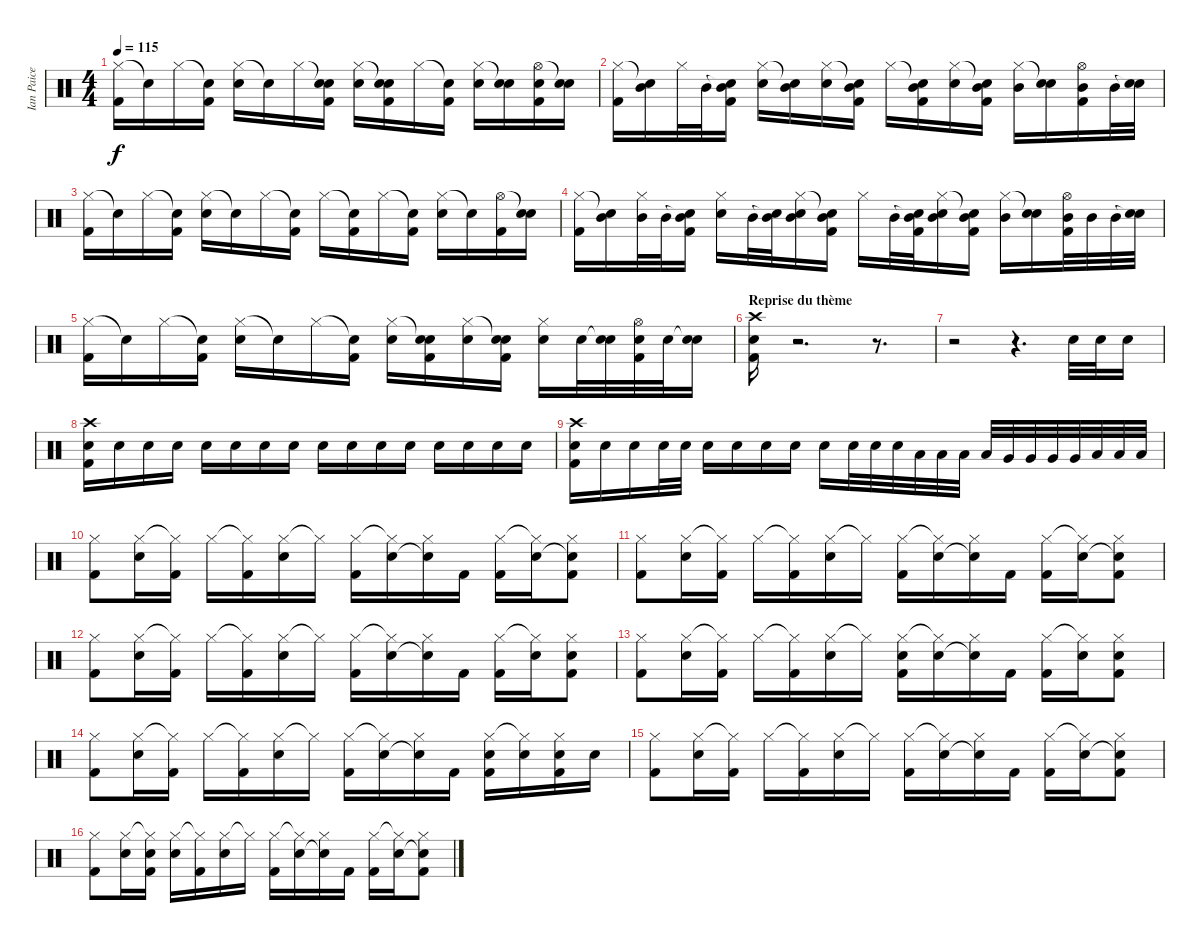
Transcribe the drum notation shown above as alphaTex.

\track ("Ian Paice" "Ian Paice") {instrument percussion}
\staff {score}
\articulation defaults
\ts (4 4)
\tempo 115
\clef neutral
\ks c
("Hi-Hat (closed)" "Kick (hit) 2").16{dy f} "Snare (hit)"{t}.16 "Hi-Hat (closed)".16 ("Snare (hit)"{t} "Kick (hit) 2").16 ("Hi-Hat (closed)" "Snare (hit) 2").16 "Snare (hit)"{t}.16 "Hi-Hat (closed)".16 ("Snare (hit)"{t} "Snare (hit) 2" "Kick (hit) 2").16 ("Hi-Hat (closed)" "Snare (hit) 2").16 ("Snare (hit)"{t} "Snare (hit) 2" "Kick (hit) 2").16 "Hi-Hat (closed)".16 ("Snare (hit)"{t} "Kick (hit) 2").16 ("Hi-Hat (closed)" "Snare (hit) 2").16 ("Snare (hit)"{t} "Snare (hit) 2").16 ("Hi-Hat (open)" "Snare (hit) 2" "Kick (hit) 2").16 ("Snare (hit)"{t} "Snare (hit) 2").16 |
("Hi-Hat (closed)" "Kick (hit) 2").16 ("Snare (hit)"{t} "Mid Tom (hit)").16 "Hi-Hat (closed)".32 "Mid Tom (hit)".32 ("Snare (hit)"{t} "Mid Tom (hit)" "Kick (hit) 2").16 ("Hi-Hat (closed)" "Snare (hit) 2").16 ("Snare (hit)"{t} "Mid Tom (hit)").16 ("Hi-Hat (closed)" "Snare (hit) 2").16 ("Snare (hit)"{t} "Mid Tom (hit)" "Kick (hit) 2").16 "Hi-Hat (closed)".16 ("Snare (hit)"{t} "Mid Tom (hit)" "Kick (hit) 2").16 ("Hi-Hat (closed)" "Snare (hit) 2").16 ("Snare (hit)"{t} "Mid Tom (hit)" "Kick (hit) 2").16 ("Hi-Hat (closed)" "Mid Tom (hit)").16 ("Snare (hit)"{t} "Snare (hit) 2").16 ("Hi-Hat (open)" "Mid Tom (hit)" "Kick (hit) 2").16 "Mid Tom (hit)".32 ("Snare (hit)"{t} "Snare (hit) 2").32 |
("Hi-Hat (closed)" "Kick (hit) 2").16 "Snare (hit)"{t}.16 "Hi-Hat (closed)".16 ("Snare (hit)"{t} "Kick (hit) 2").16 ("Hi-Hat (closed)" "Snare (hit) 2").16 "Snare (hit)"{t}.16 "Hi-Hat (closed)".16 ("Snare (hit)"{t} "Kick (hit) 2").16 "Hi-Hat (closed)".16 ("Snare (hit)"{t} "Kick (hit) 2").16 "Hi-Hat (closed)".16 ("Snare (hit)"{t} "Kick (hit) 2").16 ("Hi-Hat (closed)" "Snare (hit) 2").16 "Snare (hit)"{t}.16 ("Hi-Hat (open)" "Kick (hit) 2").16 ("Snare (hit)"{t} "Snare (hit) 2").16 |
("Hi-Hat (closed)" "Kick (hit) 2").16 ("Snare (hit)"{t} "Mid Tom (hit)").16 ("Hi-Hat (closed)" "Mid Tom (hit)").32 "Mid Tom (hit)".32 ("Snare (hit)"{t} "Mid Tom (hit)" "Kick (hit) 2").16 ("Hi-Hat (closed)" "Snare (hit) 2").16 "Mid Tom (hit)".32 ("Snare (hit)"{t} "Mid Tom (hit)").32 ("Hi-Hat (closed)" "Mid Tom (hit)" "Snare (hit) 2").16 ("Snare (hit)"{t} "Mid Tom (hit)" "Kick (hit) 2").16 "Hi-Hat (closed)".16 "Mid Tom (hit)".32 ("Snare (hit)"{t} "Mid Tom (hit)" "Kick (hit) 2").32 ("Hi-Hat (closed)" "Mid Tom (hit)" "Snare (hit) 2").16 ("Snare (hit)"{t} "Mid Tom (hit)" "Kick (hit) 2").16 ("Hi-Hat (closed)" "Mid Tom (hit)").16 ("Snare (hit)"{t} "Snare (hit) 2").16 ("Hi-Hat (open)" "Mid Tom (hit)" "Kick (hit) 2").32 "Mid Tom (hit)".32 "Mid Tom (hit)".32 ("Snare (hit)"{t} "Snare (hit) 2").32 |
("Hi-Hat (closed)" "Kick (hit) 2").16 "Snare (hit)"{t}.16 "Hi-Hat (closed)".16 ("Snare (hit)"{t} "Kick (hit) 2").16 ("Hi-Hat (closed)" "Snare (hit) 2").16 "Snare (hit)"{t}.16 "Hi-Hat (closed)".16 ("Snare (hit)"{t} "Kick (hit) 2").16 ("Hi-Hat (closed)" "Snare (hit) 2").16 ("Snare (hit)"{t} "Snare (hit) 2" "Kick (hit) 2").16 ("Hi-Hat (closed)" "Snare (hit) 2").16 ("Snare (hit)"{t} "Snare (hit) 2" "Kick (hit) 2").16 ("Hi-Hat (closed)" "Snare (hit) 2").16 "Snare (hit) 2".32 ("Snare (hit)"{t} "Snare (hit) 2").32 ("Hi-Hat (open)" "Snare (hit) 2" "Kick (hit) 2").32 "Snare (hit) 2".32 ("Snare (hit)"{t} "Snare (hit) 2").16 |
\section ("" "Reprise du thème")
("Crash high (hit)" "Snare (hit) 2" "Kick (hit) 2").16 r.2{d} r.8{d} |
r.2 r.4{d} "Snare (hit) 2".32 "Snare (hit) 2".32 "Snare (hit) 2".16 |
("Crash high (hit)" "Snare (hit) 2" "Kick (hit) 2").16 "Snare (hit) 2".16 "Snare (hit) 2".16 "Snare (hit) 2".16 "Snare (hit) 2".16 "Snare (hit) 2".16 "Snare (hit) 2".16 "Snare (hit) 2".16 "Snare (hit) 2".16 "Snare (hit) 2".16 "Snare (hit) 2".16 "Snare (hit) 2".16 "Snare (hit) 2".16 "Snare (hit) 2".16 "Snare (hit) 2".16 "Snare (hit) 2".16 |
("Crash high (hit)" "Snare (hit) 2" "Kick (hit) 2").16 "Snare (hit) 2".16 "Snare (hit) 2".16 "Snare (hit) 2".32 "Snare (hit) 2".32 "Snare (hit) 2".16 "Snare (hit) 2".16 "Snare (hit) 2".16 "Snare (hit) 2".16 "Snare (hit) 2".16 "Snare (hit) 2".32 "Snare (hit) 2".32 "Snare (hit) 2".32 "Low Tom (hit)".32 "Low Tom (hit)".32 "Low Tom (hit)".32 "Low Tom (hit)".32 "Very Low Tom (hit)".32 "Very Low Tom (hit)".32 "Very Low Tom (hit)".32 "Very Low Tom (hit)".32 "Low Floor Tom (hit)".32 "Low Floor Tom (hit)".32 "Low Floor Tom (hit)".32 |
("Hi-Hat (closed)" "Kick (hit) 2").8 ("Hi-Hat (closed)" "Snare (hit) 2").16 ("Hi-Hat (closed)"{t} "Kick (hit) 2").16 "Hi-Hat (closed)".16 ("Hi-Hat (closed)"{t} "Kick (hit) 2").16 ("Hi-Hat (closed)" "Snare (hit) 2").16 "Hi-Hat (closed)"{t}.16 ("Hi-Hat (closed)" "Kick (hit) 2").16 ("Hi-Hat (closed)"{t} "Snare (hit) 2").16 ("Hi-Hat (closed)" "Snare (hit) 2"{t}).16 "Kick (hit) 2".16 ("Hi-Hat (closed)" "Kick (hit) 2").16 ("Hi-Hat (closed)"{t} "Snare (hit) 2").16 ("Hi-Hat (closed)" "Snare (hit) 2"{t} "Kick (hit) 2").8 |
("Hi-Hat (closed)" "Kick (hit) 2").8 ("Hi-Hat (closed)" "Snare (hit) 2").16 ("Hi-Hat (closed)"{t} "Kick (hit) 2").16 "Hi-Hat (closed)".16 ("Hi-Hat (closed)"{t} "Kick (hit) 2").16 ("Hi-Hat (closed)" "Snare (hit) 2").16 "Hi-Hat (closed)"{t}.16 ("Hi-Hat (closed)" "Kick (hit) 2").16 ("Hi-Hat (closed)"{t} "Snare (hit) 2").16 ("Hi-Hat (closed)" "Snare (hit) 2"{t}).16 "Kick (hit) 2".16 ("Hi-Hat (closed)" "Kick (hit) 2").16 ("Hi-Hat (closed)"{t} "Snare (hit) 2").16 ("Hi-Hat (closed)" "Snare (hit) 2"{t} "Kick (hit) 2").8 |
("Hi-Hat (closed)" "Kick (hit) 2").8 ("Hi-Hat (closed)" "Snare (hit) 2").16 ("Hi-Hat (closed)"{t} "Kick (hit) 2").16 "Hi-Hat (closed)".16 ("Hi-Hat (closed)"{t} "Kick (hit) 2").16 ("Hi-Hat (closed)" "Snare (hit) 2").16 "Hi-Hat (closed)"{t}.16 ("Hi-Hat (closed)" "Kick (hit) 2").16 ("Hi-Hat (closed)"{t} "Snare (hit) 2").16 ("Hi-Hat (closed)" "Snare (hit) 2"{t}).16 "Kick (hit) 2".16 ("Hi-Hat (closed)" "Kick (hit) 2").16 ("Hi-Hat (closed)"{t} "Snare (hit) 2").16 ("Hi-Hat (closed)" "Snare (hit) 2" "Kick (hit) 2").8 |
("Hi-Hat (closed)" "Kick (hit) 2").8 ("Hi-Hat (closed)" "Snare (hit) 2").16 ("Hi-Hat (closed)"{t} "Kick (hit) 2").16 "Hi-Hat (closed)".16 ("Hi-Hat (closed)"{t} "Kick (hit) 2").16 ("Hi-Hat (closed)" "Snare (hit) 2").16 "Hi-Hat (closed)"{t}.16 ("Hi-Hat (closed)" "Snare (hit) 2" "Kick (hit) 2").16 ("Hi-Hat (closed)"{t} "Snare (hit) 2").16 ("Hi-Hat (closed)" "Snare (hit) 2"{t}).16 "Kick (hit) 2".16 ("Hi-Hat (closed)" "Kick (hit) 2").16 ("Hi-Hat (closed)"{t} "Snare (hit) 2").16 ("Hi-Hat (closed)" "Snare (hit) 2" "Kick (hit) 2").8 |
("Hi-Hat (closed)" "Kick (hit) 2").8 ("Hi-Hat (closed)" "Snare (hit) 2").16 ("Hi-Hat (closed)"{t} "Kick (hit) 2").16 "Hi-Hat (closed)".16 ("Hi-Hat (closed)"{t} "Kick (hit) 2").16 ("Hi-Hat (closed)" "Snare (hit) 2").16 "Hi-Hat (closed)"{t}.16 ("Hi-Hat (closed)" "Kick (hit) 2").16 ("Hi-Hat (closed)"{t} "Snare (hit) 2").16 ("Hi-Hat (closed)" "Snare (hit) 2"{t}).16 "Kick (hit) 2".16 ("Hi-Hat (closed)" "Snare (hit) 2" "Kick (hit) 2").16 ("Hi-Hat (closed)"{t} "Snare (hit) 2").16 ("Hi-Hat (closed)" "Snare (hit) 2" "Kick (hit) 2").16 "Snare (hit) 2".16 |
("Hi-Hat (closed)" "Kick (hit) 2").8 ("Hi-Hat (closed)" "Snare (hit) 2").16 ("Hi-Hat (closed)"{t} "Kick (hit) 2").16 "Hi-Hat (closed)".16 ("Hi-Hat (closed)"{t} "Kick (hit) 2").16 ("Hi-Hat (closed)" "Snare (hit) 2").16 "Hi-Hat (closed)"{t}.16 ("Hi-Hat (closed)" "Kick (hit) 2").16 ("Hi-Hat (closed)"{t} "Snare (hit) 2").16 ("Hi-Hat (closed)" "Snare (hit) 2"{t}).16 "Kick (hit) 2".16 ("Hi-Hat (closed)" "Kick (hit) 2").16 ("Hi-Hat (closed)"{t} "Snare (hit) 2").16 ("Hi-Hat (closed)" "Snare (hit) 2"{t} "Kick (hit) 2").8 |
("Hi-Hat (closed)" "Kick (hit) 2").8 ("Hi-Hat (closed)" "Snare (hit) 2").16 ("Hi-Hat (closed)"{t} "Snare (hit) 2" "Kick (hit) 2").16 ("Hi-Hat (closed)" "Snare (hit) 2").16 ("Hi-Hat (closed)"{t} "Kick (hit) 2").16 ("Hi-Hat (closed)" "Snare (hit) 2").16 "Hi-Hat (closed)"{t}.16 ("Hi-Hat (closed)" "Kick (hit) 2").16 ("Hi-Hat (closed)"{t} "Snare (hit) 2").16 ("Hi-Hat (closed)" "Snare (hit) 2"{t}).16 "Kick (hit) 2".16 ("Hi-Hat (closed)" "Kick (hit) 2").16 ("Hi-Hat (closed)"{t} "Snare (hit) 2").16 ("Hi-Hat (closed)" "Snare (hit) 2"{t} "Kick (hit) 2").8
